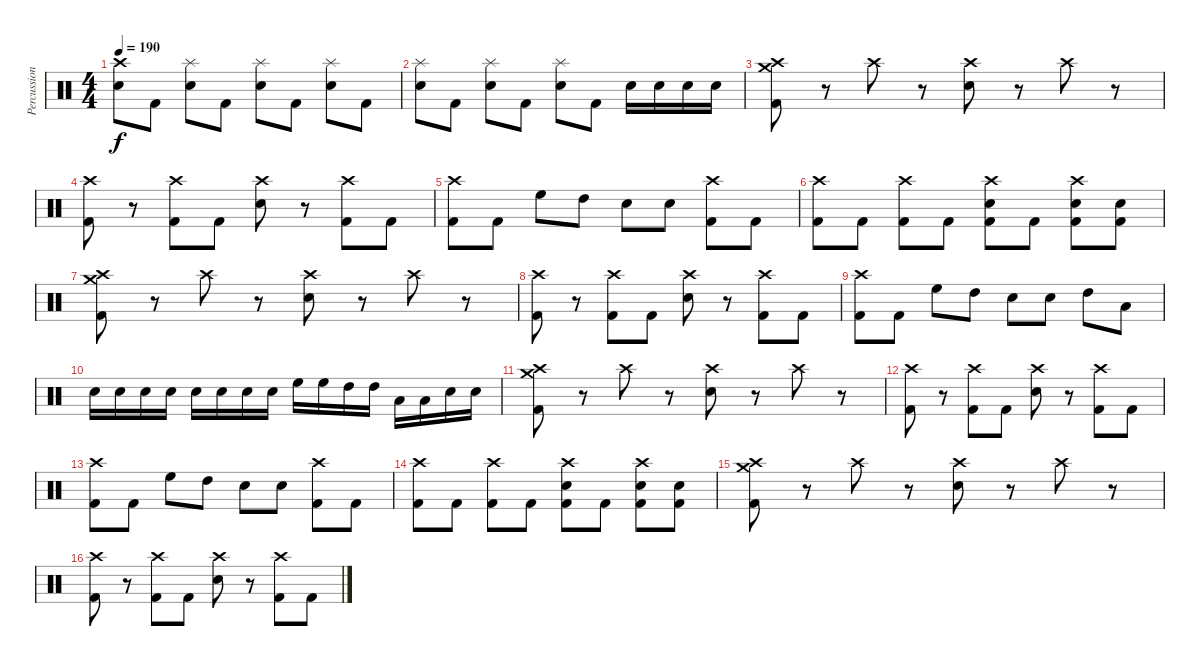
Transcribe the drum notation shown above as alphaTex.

\track ("Percussion" "Percussion") {instrument percussion}
\staff {score}
\articulation defaults
\ts (4 4)
\tempo 190
\clef neutral
\ks c
("Crash high (hit)" "Snare (hit) 2").8{dy f} "Kick (hit) 2".8 ("Splash (hit)" "Snare (hit) 2").8 "Kick (hit) 2".8 ("Splash (hit)" "Snare (hit) 2").8 "Kick (hit) 2".8 ("Splash (hit)" "Snare (hit) 2").8 "Kick (hit) 2".8 |
("Splash (hit)" "Snare (hit) 2").8 "Kick (hit) 2".8 ("Splash (hit)" "Snare (hit) 2").8 "Kick (hit) 2".8 ("Splash (hit)" "Snare (hit) 2").8 "Kick (hit) 2".8 "Snare (hit) 2".16 "Snare (hit) 2".16 "Snare (hit) 2".16 "Snare (hit) 2".16 |
("Crash high (hit)" "Crash medium (hit)" "Kick (hit) 2").8 r.8 "Crash high (hit)".8 r.8 ("Crash high (hit)" "Snare (hit) 2").8 r.8 "Crash high (hit)".8 r.8 |
("Crash high (hit)" "Kick (hit) 2").8 r.8 ("Crash high (hit)" "Kick (hit) 2").8 "Kick (hit) 2".8 ("Crash high (hit)" "Snare (hit) 2").8 r.8 ("Crash high (hit)" "Kick (hit) 2").8 "Kick (hit) 2".8 |
("Crash high (hit)" "Kick (hit) 2").8 "Kick (hit) 2".8 "High Floor Tom (hit)".8 "High Tom (hit)".8 "Snare (hit) 2".8 "Snare (hit) 2".8 ("Crash high (hit)" "Kick (hit) 2").8 "Kick (hit) 2".8 |
("Crash high (hit)" "Kick (hit) 2").8 "Kick (hit) 2".8 ("Crash high (hit)" "Kick (hit) 2").8 "Kick (hit) 2".8 ("Crash high (hit)" "Snare (hit) 2" "Kick (hit) 2").8 "Kick (hit) 2".8 ("Crash high (hit)" "Snare (hit) 2" "Kick (hit) 2").8 ("Snare (hit) 2" "Kick (hit) 2").8 |
("Crash high (hit)" "Crash medium (hit)" "Kick (hit) 2").8 r.8 "Crash high (hit)".8 r.8 ("Crash high (hit)" "Snare (hit) 2").8 r.8 "Crash high (hit)".8 r.8 |
("Crash high (hit)" "Kick (hit) 2").8 r.8 ("Crash high (hit)" "Kick (hit) 2").8 "Kick (hit) 2".8 ("Crash high (hit)" "Snare (hit) 2").8 r.8 ("Crash high (hit)" "Kick (hit) 2").8 "Kick (hit) 2".8 |
("Crash high (hit)" "Kick (hit) 2").8 "Kick (hit) 2".8 "High Floor Tom (hit)".8 "High Tom (hit)".8 "Snare (hit) 2".8 "Snare (hit) 2".8 "High Tom (hit)".8 "Low Tom (hit)".8 |
"Snare (hit) 2".16 "Snare (hit) 2".16 "Snare (hit) 2".16 "Snare (hit) 2".16 "Snare (hit) 2".16 "Snare (hit) 2".16 "Snare (hit) 2".16 "Snare (hit) 2".16 "High Floor Tom (hit)".16 "High Floor Tom (hit)".16 "High Tom (hit)".16 "High Tom (hit)".16 "Low Tom (hit)".16 "Low Tom (hit)".16 "Snare (hit) 2".16 "Snare (hit) 2".16 |
("Crash high (hit)" "Crash medium (hit)" "Kick (hit) 2").8 r.8 "Crash high (hit)".8 r.8 ("Crash high (hit)" "Snare (hit) 2").8 r.8 "Crash high (hit)".8 r.8 |
("Crash high (hit)" "Kick (hit) 2").8 r.8 ("Crash high (hit)" "Kick (hit) 2").8 "Kick (hit) 2".8 ("Crash high (hit)" "Snare (hit) 2").8 r.8 ("Crash high (hit)" "Kick (hit) 2").8 "Kick (hit) 2".8 |
("Crash high (hit)" "Kick (hit) 2").8 "Kick (hit) 2".8 "High Floor Tom (hit)".8 "High Tom (hit)".8 "Snare (hit) 2".8 "Snare (hit) 2".8 ("Crash high (hit)" "Kick (hit) 2").8 "Kick (hit) 2".8 |
("Crash high (hit)" "Kick (hit) 2").8 "Kick (hit) 2".8 ("Crash high (hit)" "Kick (hit) 2").8 "Kick (hit) 2".8 ("Crash high (hit)" "Snare (hit) 2" "Kick (hit) 2").8 "Kick (hit) 2".8 ("Crash high (hit)" "Snare (hit) 2" "Kick (hit) 2").8 ("Snare (hit) 2" "Kick (hit) 2").8 |
("Crash high (hit)" "Crash medium (hit)" "Kick (hit) 2").8 r.8 "Crash high (hit)".8 r.8 ("Crash high (hit)" "Snare (hit) 2").8 r.8 "Crash high (hit)".8 r.8 |
("Crash high (hit)" "Kick (hit) 2").8 r.8 ("Crash high (hit)" "Kick (hit) 2").8 "Kick (hit) 2".8 ("Crash high (hit)" "Snare (hit) 2").8 r.8 ("Crash high (hit)" "Kick (hit) 2").8 "Kick (hit) 2".8
